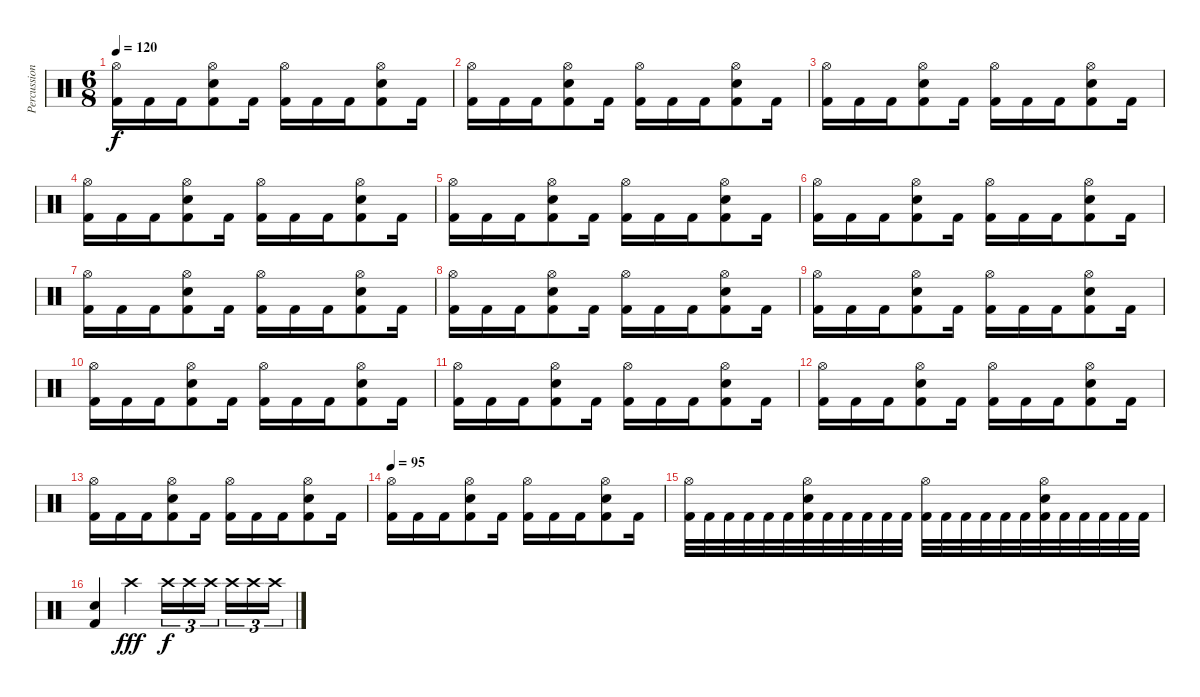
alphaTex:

\track ("Percussion" "Percussion") {instrument percussion}
\staff {score}
\articulation defaults
\ts (6 8)
\tempo 120
\clef neutral
\ks c
("Hi-Hat (open)" "Kick (hit) 2").16{dy f} "Kick (hit) 2".16 "Kick (hit) 2".16 ("Hi-Hat (open)" "Snare (hit) 2" "Kick (hit) 2").8 "Kick (hit) 2".16 ("Hi-Hat (open)" "Kick (hit) 2").16 "Kick (hit) 2".16 "Kick (hit) 2".16 ("Hi-Hat (open)" "Snare (hit) 2" "Kick (hit) 2").8 "Kick (hit) 2".16 |
("Hi-Hat (open)" "Kick (hit) 2").16 "Kick (hit) 2".16 "Kick (hit) 2".16 ("Hi-Hat (open)" "Snare (hit) 2" "Kick (hit) 2").8 "Kick (hit) 2".16 ("Hi-Hat (open)" "Kick (hit) 2").16 "Kick (hit) 2".16 "Kick (hit) 2".16 ("Hi-Hat (open)" "Snare (hit) 2" "Kick (hit) 2").8 "Kick (hit) 2".16 |
("Hi-Hat (open)" "Kick (hit) 2").16 "Kick (hit) 2".16 "Kick (hit) 2".16 ("Hi-Hat (open)" "Snare (hit) 2" "Kick (hit) 2").8 "Kick (hit) 2".16 ("Hi-Hat (open)" "Kick (hit) 2").16 "Kick (hit) 2".16 "Kick (hit) 2".16 ("Hi-Hat (open)" "Snare (hit) 2" "Kick (hit) 2").8 "Kick (hit) 2".16 |
("Hi-Hat (open)" "Kick (hit) 2").16 "Kick (hit) 2".16 "Kick (hit) 2".16 ("Hi-Hat (open)" "Snare (hit) 2" "Kick (hit) 2").8 "Kick (hit) 2".16 ("Hi-Hat (open)" "Kick (hit) 2").16 "Kick (hit) 2".16 "Kick (hit) 2".16 ("Hi-Hat (open)" "Snare (hit) 2" "Kick (hit) 2").8 "Kick (hit) 2".16 |
("Hi-Hat (open)" "Kick (hit) 2").16 "Kick (hit) 2".16 "Kick (hit) 2".16 ("Hi-Hat (open)" "Snare (hit) 2" "Kick (hit) 2").8 "Kick (hit) 2".16 ("Hi-Hat (open)" "Kick (hit) 2").16 "Kick (hit) 2".16 "Kick (hit) 2".16 ("Hi-Hat (open)" "Snare (hit) 2" "Kick (hit) 2").8 "Kick (hit) 2".16 |
("Hi-Hat (open)" "Kick (hit) 2").16 "Kick (hit) 2".16 "Kick (hit) 2".16 ("Hi-Hat (open)" "Snare (hit) 2" "Kick (hit) 2").8 "Kick (hit) 2".16 ("Hi-Hat (open)" "Kick (hit) 2").16 "Kick (hit) 2".16 "Kick (hit) 2".16 ("Hi-Hat (open)" "Snare (hit) 2" "Kick (hit) 2").8 "Kick (hit) 2".16 |
("Hi-Hat (open)" "Kick (hit) 2").16 "Kick (hit) 2".16 "Kick (hit) 2".16 ("Hi-Hat (open)" "Snare (hit) 2" "Kick (hit) 2").8 "Kick (hit) 2".16 ("Hi-Hat (open)" "Kick (hit) 2").16 "Kick (hit) 2".16 "Kick (hit) 2".16 ("Hi-Hat (open)" "Snare (hit) 2" "Kick (hit) 2").8 "Kick (hit) 2".16 |
("Hi-Hat (open)" "Kick (hit) 2").16 "Kick (hit) 2".16 "Kick (hit) 2".16 ("Hi-Hat (open)" "Snare (hit) 2" "Kick (hit) 2").8 "Kick (hit) 2".16 ("Hi-Hat (open)" "Kick (hit) 2").16 "Kick (hit) 2".16 "Kick (hit) 2".16 ("Hi-Hat (open)" "Snare (hit) 2" "Kick (hit) 2").8 "Kick (hit) 2".16 |
("Hi-Hat (open)" "Kick (hit) 2").16 "Kick (hit) 2".16 "Kick (hit) 2".16 ("Hi-Hat (open)" "Snare (hit) 2" "Kick (hit) 2").8 "Kick (hit) 2".16 ("Hi-Hat (open)" "Kick (hit) 2").16 "Kick (hit) 2".16 "Kick (hit) 2".16 ("Hi-Hat (open)" "Snare (hit) 2" "Kick (hit) 2").8 "Kick (hit) 2".16 |
("Hi-Hat (open)" "Kick (hit) 2").16 "Kick (hit) 2".16 "Kick (hit) 2".16 ("Hi-Hat (open)" "Snare (hit) 2" "Kick (hit) 2").8 "Kick (hit) 2".16 ("Hi-Hat (open)" "Kick (hit) 2").16 "Kick (hit) 2".16 "Kick (hit) 2".16 ("Hi-Hat (open)" "Snare (hit) 2" "Kick (hit) 2").8 "Kick (hit) 2".16 |
("Hi-Hat (open)" "Kick (hit) 2").16 "Kick (hit) 2".16 "Kick (hit) 2".16 ("Hi-Hat (open)" "Snare (hit) 2" "Kick (hit) 2").8 "Kick (hit) 2".16 ("Hi-Hat (open)" "Kick (hit) 2").16 "Kick (hit) 2".16 "Kick (hit) 2".16 ("Hi-Hat (open)" "Snare (hit) 2" "Kick (hit) 2").8 "Kick (hit) 2".16 |
("Hi-Hat (open)" "Kick (hit) 2").16 "Kick (hit) 2".16 "Kick (hit) 2".16 ("Hi-Hat (open)" "Snare (hit) 2" "Kick (hit) 2").8 "Kick (hit) 2".16 ("Hi-Hat (open)" "Kick (hit) 2").16 "Kick (hit) 2".16 "Kick (hit) 2".16 ("Hi-Hat (open)" "Snare (hit) 2" "Kick (hit) 2").8 "Kick (hit) 2".16 |
("Hi-Hat (open)" "Kick (hit) 2").16 "Kick (hit) 2".16 "Kick (hit) 2".16 ("Hi-Hat (open)" "Snare (hit) 2" "Kick (hit) 2").8 "Kick (hit) 2".16 ("Hi-Hat (open)" "Kick (hit) 2").16 "Kick (hit) 2".16 "Kick (hit) 2".16 ("Hi-Hat (open)" "Snare (hit) 2" "Kick (hit) 2").8 "Kick (hit) 2".16 |
\tempo 95
("Hi-Hat (open)" "Kick (hit) 2").16 "Kick (hit) 2".16 "Kick (hit) 2".16 ("Hi-Hat (open)" "Snare (hit) 2" "Kick (hit) 2").8 "Kick (hit) 2".16 ("Hi-Hat (open)" "Kick (hit) 2").16 "Kick (hit) 2".16 "Kick (hit) 2".16 ("Hi-Hat (open)" "Snare (hit) 2" "Kick (hit) 2").8 "Kick (hit) 2".16 |
("Hi-Hat (open)" "Kick (hit) 2").32 "Kick (hit) 2".32 "Kick (hit) 2".32 "Kick (hit) 2".32 "Kick (hit) 2".32 "Kick (hit) 2".32 ("Hi-Hat (open)" "Snare (hit) 2" "Kick (hit) 2").32 "Kick (hit) 2".32 "Kick (hit) 2".32 "Kick (hit) 2".32 "Kick (hit) 2".32 "Kick (hit) 2".32 ("Hi-Hat (open)" "Kick (hit) 2").32 "Kick (hit) 2".32 "Kick (hit) 2".32 "Kick (hit) 2".32 "Kick (hit) 2".32 "Kick (hit) 2".32 ("Hi-Hat (open)" "Snare (hit) 2" "Kick (hit) 2").32 "Kick (hit) 2".32 "Kick (hit) 2".32 "Kick (hit) 2".32 "Kick (hit) 2".32 "Kick (hit) 2".32 |
("Electric Snare (hit)" "Kick (hit) 2").4 "Crash high (hit)".4{dy fff} "Crash high (hit)".16{tu (3 2) dy f} "Crash high (hit)".16{tu (3 2)} "Crash high (hit)".16{tu (3 2)} "Crash high (hit)".16{tu (3 2)} "Crash high (hit)".16{tu (3 2)} "Crash high (hit)".16{tu (3 2)}
